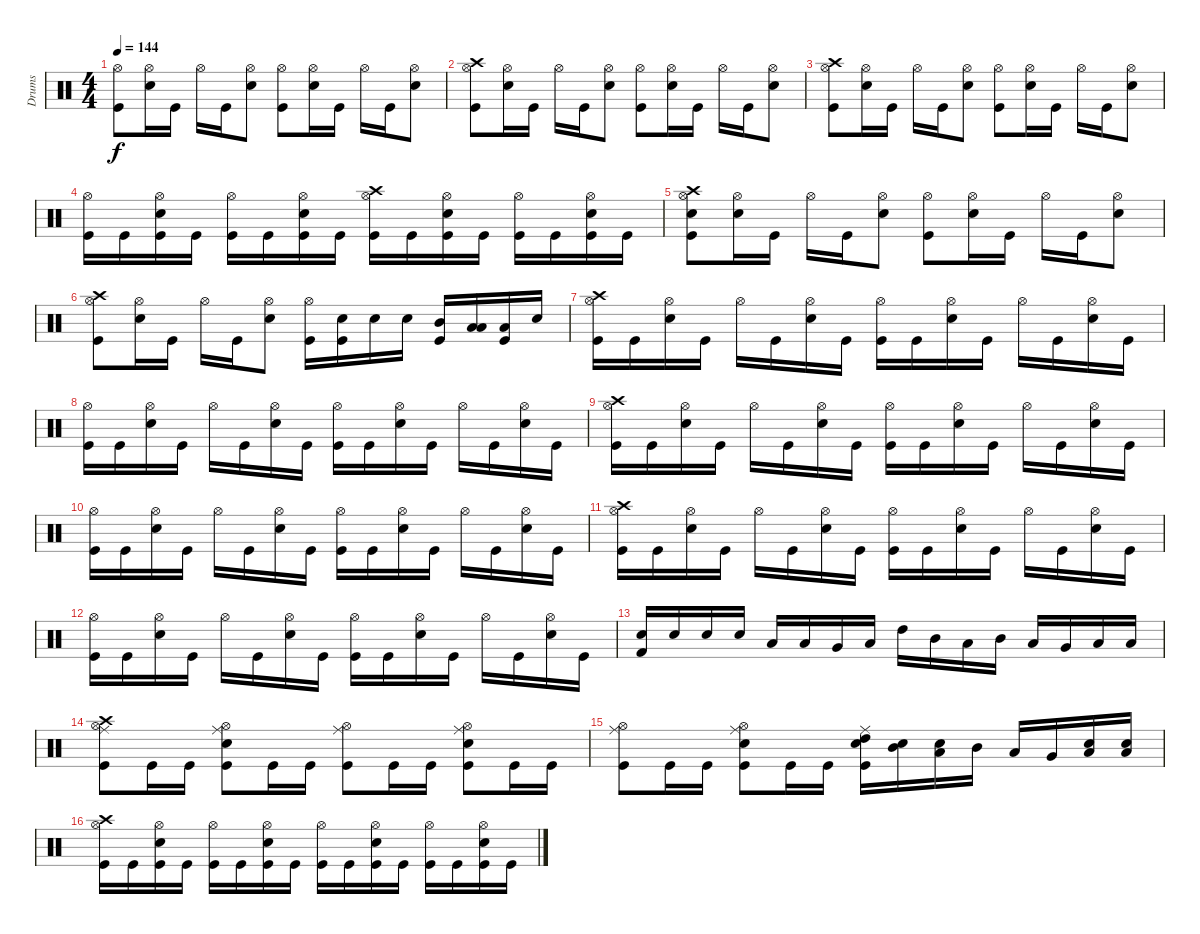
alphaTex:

\track ("Drums" "Drums") {instrument percussion}
\staff {score}
\articulation defaults
\ts (4 4)
\tempo 144
\clef neutral
\ks c
("Hi-Hat (open)" "Kick (hit)").8{dy f} ("Hi-Hat (open)" "Electric Snare (hit)").16 "Kick (hit)".16 "Hi-Hat (open)".16 "Kick (hit)".16 ("Hi-Hat (open)" "Electric Snare (hit)").8 ("Hi-Hat (open)" "Kick (hit)").8 ("Hi-Hat (open)" "Electric Snare (hit)").16 "Kick (hit)".16 "Hi-Hat (open)".16 "Kick (hit)".16 ("Hi-Hat (open)" "Electric Snare (hit)").8 |
("Hi-Hat (open)" "Crash high (hit)" "Kick (hit)").8 ("Hi-Hat (open)" "Electric Snare (hit)").16 "Kick (hit)".16 "Hi-Hat (open)".16 "Kick (hit)".16 ("Hi-Hat (open)" "Electric Snare (hit)").8 ("Hi-Hat (open)" "Kick (hit)").8 ("Hi-Hat (open)" "Electric Snare (hit)").16 "Kick (hit)".16 "Hi-Hat (open)".16 "Kick (hit)".16 ("Hi-Hat (open)" "Electric Snare (hit)").8 |
("Hi-Hat (open)" "Crash high (hit)" "Kick (hit)").8 ("Hi-Hat (open)" "Electric Snare (hit)").16 "Kick (hit)".16 "Hi-Hat (open)".16 "Kick (hit)".16 ("Hi-Hat (open)" "Electric Snare (hit)").8 ("Hi-Hat (open)" "Kick (hit)").8 ("Hi-Hat (open)" "Electric Snare (hit)").16 "Kick (hit)".16 "Hi-Hat (open)".16 "Kick (hit)".16 ("Hi-Hat (open)" "Electric Snare (hit)").8 |
("Hi-Hat (open)" "Kick (hit)").16 "Kick (hit)".16 ("Kick (hit)" "Hi-Hat (open)" "Electric Snare (hit)").16 "Kick (hit)".16 ("Kick (hit)" "Hi-Hat (open)").16 "Kick (hit)".16 ("Kick (hit)" "Hi-Hat (open)" "Electric Snare (hit)").16 "Kick (hit)".16 ("Hi-Hat (open)" "Crash high (hit)" "Kick (hit)").16 "Kick (hit)".16 ("Kick (hit)" "Hi-Hat (open)" "Electric Snare (hit)").16 "Kick (hit)".16 ("Kick (hit)" "Hi-Hat (open)").16 "Kick (hit)".16 ("Kick (hit)" "Hi-Hat (open)" "Electric Snare (hit)").16 "Kick (hit)".16 |
("Electric Snare (hit)" "Hi-Hat (open)" "Crash high (hit)" "Kick (hit)").8 ("Hi-Hat (open)" "Electric Snare (hit)").16 "Kick (hit)".16 "Hi-Hat (open)".16 "Kick (hit)".16 ("Hi-Hat (open)" "Electric Snare (hit)").8 ("Hi-Hat (open)" "Kick (hit)").8 ("Hi-Hat (open)" "Electric Snare (hit)").16 "Kick (hit)".16 "Hi-Hat (open)".16 "Kick (hit)".16 ("Hi-Hat (open)" "Electric Snare (hit)").8 |
("Hi-Hat (open)" "Crash high (hit)" "Kick (hit)").8 ("Hi-Hat (open)" "Electric Snare (hit)").16 "Kick (hit)".16 "Hi-Hat (open)".16 "Kick (hit)".16 ("Hi-Hat (open)" "Electric Snare (hit)").8 ("Hi-Hat (open)" "Kick (hit)").16 ("Electric Snare (hit)" "Kick (hit)").16 "Electric Snare (hit)".16 "Electric Snare (hit)".16 ("Mid Tom (hit)" "Kick (hit)").16 ("Low Floor Tom (hit)" "Low Tom (hit)").16 ("Low Floor Tom (hit)" "Kick (hit)").16 "Electric Snare (hit)".16 |
("Hi-Hat (open)" "Crash high (hit)" "Kick (hit)").16 "Kick (hit)".16 ("Hi-Hat (open)" "Electric Snare (hit)").16 "Kick (hit)".16 "Hi-Hat (open)".16 "Kick (hit)".16 ("Hi-Hat (open)" "Electric Snare (hit)").16 "Kick (hit)".16 ("Hi-Hat (open)" "Kick (hit)").16 "Kick (hit)".16 ("Hi-Hat (open)" "Electric Snare (hit)").16 "Kick (hit)".16 "Hi-Hat (open)".16 "Kick (hit)".16 ("Hi-Hat (open)" "Electric Snare (hit)").16 "Kick (hit)".16 |
("Hi-Hat (open)" "Kick (hit)").16 "Kick (hit)".16 ("Hi-Hat (open)" "Electric Snare (hit)").16 "Kick (hit)".16 "Hi-Hat (open)".16 "Kick (hit)".16 ("Hi-Hat (open)" "Electric Snare (hit)").16 "Kick (hit)".16 ("Hi-Hat (open)" "Kick (hit)").16 "Kick (hit)".16 ("Hi-Hat (open)" "Electric Snare (hit)").16 "Kick (hit)".16 "Hi-Hat (open)".16 "Kick (hit)".16 ("Hi-Hat (open)" "Electric Snare (hit)").16 "Kick (hit)".16 |
("Hi-Hat (open)" "Crash high (hit)" "Kick (hit)").16 "Kick (hit)".16 ("Hi-Hat (open)" "Electric Snare (hit)").16 "Kick (hit)".16 "Hi-Hat (open)".16 "Kick (hit)".16 ("Hi-Hat (open)" "Electric Snare (hit)").16 "Kick (hit)".16 ("Hi-Hat (open)" "Kick (hit)").16 "Kick (hit)".16 ("Hi-Hat (open)" "Electric Snare (hit)").16 "Kick (hit)".16 "Hi-Hat (open)".16 "Kick (hit)".16 ("Hi-Hat (open)" "Electric Snare (hit)").16 "Kick (hit)".16 |
("Hi-Hat (open)" "Kick (hit)").16 "Kick (hit)".16 ("Hi-Hat (open)" "Electric Snare (hit)").16 "Kick (hit)".16 "Hi-Hat (open)".16 "Kick (hit)".16 ("Hi-Hat (open)" "Electric Snare (hit)").16 "Kick (hit)".16 ("Hi-Hat (open)" "Kick (hit)").16 "Kick (hit)".16 ("Hi-Hat (open)" "Electric Snare (hit)").16 "Kick (hit)".16 "Hi-Hat (open)".16 "Kick (hit)".16 ("Hi-Hat (open)" "Electric Snare (hit)").16 "Kick (hit)".16 |
("Hi-Hat (open)" "Crash high (hit)" "Kick (hit)").16 "Kick (hit)".16 ("Hi-Hat (open)" "Electric Snare (hit)").16 "Kick (hit)".16 "Hi-Hat (open)".16 "Kick (hit)".16 ("Hi-Hat (open)" "Electric Snare (hit)").16 "Kick (hit)".16 ("Hi-Hat (open)" "Kick (hit)").16 "Kick (hit)".16 ("Hi-Hat (open)" "Electric Snare (hit)").16 "Kick (hit)".16 "Hi-Hat (open)".16 "Kick (hit)".16 ("Hi-Hat (open)" "Electric Snare (hit)").16 "Kick (hit)".16 |
("Hi-Hat (open)" "Kick (hit)").16 "Kick (hit)".16 ("Hi-Hat (open)" "Electric Snare (hit)").16 "Kick (hit)".16 "Hi-Hat (open)".16 "Kick (hit)".16 ("Hi-Hat (open)" "Electric Snare (hit)").16 "Kick (hit)".16 ("Hi-Hat (open)" "Kick (hit)").16 "Kick (hit)".16 ("Hi-Hat (open)" "Electric Snare (hit)").16 "Kick (hit)".16 "Hi-Hat (open)".16 "Kick (hit)".16 ("Hi-Hat (open)" "Electric Snare (hit)").16 "Kick (hit)".16 |
("Electric Snare (hit)" "Kick (hit) 2").16 "Electric Snare (hit)".16 "Electric Snare (hit)".16 "Electric Snare (hit)".16 "Low Tom (hit)".16 "Low Tom (hit)".16 "Very Low Tom (hit)".16 "Low Tom (hit)".16 "High Tom (hit)".16 "Mid Tom (hit)".16 "Low Tom (hit)".16 "Mid Tom (hit)".16 "Low Tom (hit)".16 "Very Low Tom (hit)".16 "Low Tom (hit)".16 "Low Floor Tom (hit)".16 |
("Ride (middle)" "Crash high (hit)" "Hi-Hat (open)" "Kick (hit)").8 "Kick (hit)".16 "Kick (hit)".16 ("Ride (middle)" "Hi-Hat (open)" "Electric Snare (hit)" "Kick (hit)").8 "Kick (hit)".16 "Kick (hit)".16 ("Ride (middle)" "Hi-Hat (open)" "Kick (hit)").8 "Kick (hit)".16 "Kick (hit)".16 ("Ride (middle)" "Hi-Hat (open)" "Electric Snare (hit)" "Kick (hit)").8 "Kick (hit)".16 "Kick (hit)".16 |
("Ride (middle)" "Hi-Hat (open)" "Kick (hit)").8 "Kick (hit)".16 "Kick (hit)".16 ("Ride (middle)" "Hi-Hat (open)" "Electric Snare (hit)" "Kick (hit)").8 "Kick (hit)".16 "Kick (hit)".16 ("Electric Snare (hit)" "Ride (middle)" "High Tom (hit)" "Kick (hit)").16 ("Electric Snare (hit)" "Mid Tom (hit)").16 ("Electric Snare (hit)" "Low Tom (hit)").16 "Mid Tom (hit)".16 "Low Tom (hit)".16 "Very Low Tom (hit)".16 ("Electric Snare (hit)" "Low Tom (hit)").16 ("Snare (hit) 2" "Low Floor Tom (hit)").16 |
("Hi-Hat (open)" "Crash high (hit)" "Kick (hit)").16 "Kick (hit)".16 ("Kick (hit)" "Hi-Hat (open)" "Electric Snare (hit)").16 "Kick (hit)".16 ("Kick (hit)" "Hi-Hat (open)").16 "Kick (hit)".16 ("Kick (hit)" "Hi-Hat (open)" "Electric Snare (hit)").16 "Kick (hit)".16 ("Hi-Hat (open)" "Kick (hit)").16 "Kick (hit)".16 ("Kick (hit)" "Hi-Hat (open)" "Electric Snare (hit)").16 "Kick (hit)".16 ("Kick (hit)" "Hi-Hat (open)").16 "Kick (hit)".16 ("Kick (hit)" "Hi-Hat (open)" "Electric Snare (hit)").16 "Kick (hit)".16
